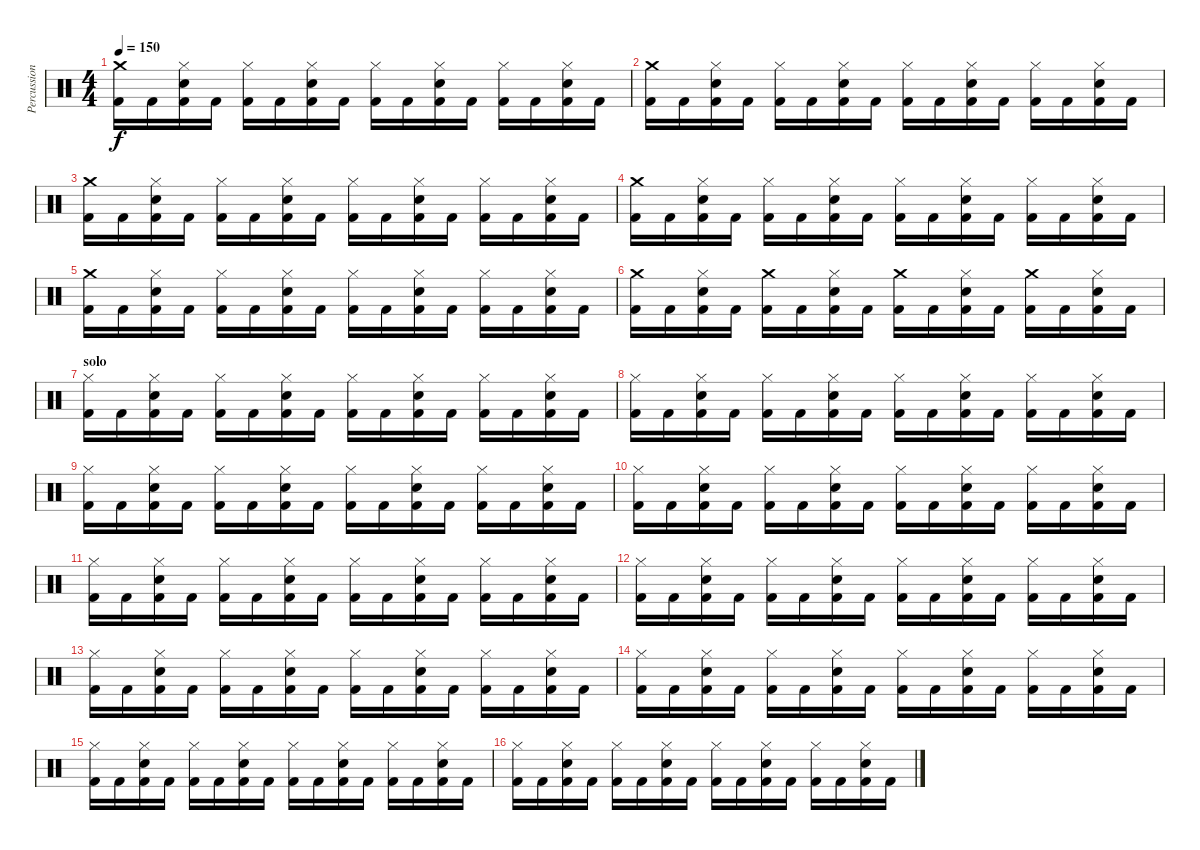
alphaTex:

\track ("Percussioni" "Percussion") {instrument percussion}
\staff {score}
\articulation defaults
\ts (4 4)
\tempo 150
\clef neutral
\ks c
("Crash medium (hit)" "Kick (hit) 2").16{dy f} "Kick (hit) 2".16 ("Hi-Hat (closed)" "Electric Snare (hit)" "Kick (hit) 2").16 "Kick (hit) 2".16 ("Hi-Hat (closed)" "Kick (hit) 2").16 "Kick (hit) 2".16 ("Hi-Hat (closed)" "Electric Snare (hit)" "Kick (hit) 2").16 "Kick (hit) 2".16 ("Hi-Hat (closed)" "Kick (hit) 2").16 "Kick (hit) 2".16 ("Hi-Hat (closed)" "Electric Snare (hit)" "Kick (hit) 2").16 "Kick (hit) 2".16 ("Hi-Hat (closed)" "Kick (hit) 2").16 "Kick (hit) 2".16 ("Hi-Hat (closed)" "Electric Snare (hit)" "Kick (hit) 2").16 "Kick (hit) 2".16 |
("Crash medium (hit)" "Kick (hit) 2").16 "Kick (hit) 2".16 ("Hi-Hat (closed)" "Electric Snare (hit)" "Kick (hit) 2").16 "Kick (hit) 2".16 ("Hi-Hat (closed)" "Kick (hit) 2").16 "Kick (hit) 2".16 ("Hi-Hat (closed)" "Electric Snare (hit)" "Kick (hit) 2").16 "Kick (hit) 2".16 ("Hi-Hat (closed)" "Kick (hit) 2").16 "Kick (hit) 2".16 ("Hi-Hat (closed)" "Electric Snare (hit)" "Kick (hit) 2").16 "Kick (hit) 2".16 ("Hi-Hat (closed)" "Kick (hit) 2").16 "Kick (hit) 2".16 ("Hi-Hat (closed)" "Electric Snare (hit)" "Kick (hit) 2").16 "Kick (hit) 2".16 |
("Crash medium (hit)" "Kick (hit) 2").16 "Kick (hit) 2".16 ("Hi-Hat (closed)" "Electric Snare (hit)" "Kick (hit) 2").16 "Kick (hit) 2".16 ("Hi-Hat (closed)" "Kick (hit) 2").16 "Kick (hit) 2".16 ("Hi-Hat (closed)" "Electric Snare (hit)" "Kick (hit) 2").16 "Kick (hit) 2".16 ("Hi-Hat (closed)" "Kick (hit) 2").16 "Kick (hit) 2".16 ("Hi-Hat (closed)" "Electric Snare (hit)" "Kick (hit) 2").16 "Kick (hit) 2".16 ("Hi-Hat (closed)" "Kick (hit) 2").16 "Kick (hit) 2".16 ("Hi-Hat (closed)" "Electric Snare (hit)" "Kick (hit) 2").16 "Kick (hit) 2".16 |
("Crash medium (hit)" "Kick (hit) 2").16 "Kick (hit) 2".16 ("Hi-Hat (closed)" "Electric Snare (hit)" "Kick (hit) 2").16 "Kick (hit) 2".16 ("Hi-Hat (closed)" "Kick (hit) 2").16 "Kick (hit) 2".16 ("Hi-Hat (closed)" "Electric Snare (hit)" "Kick (hit) 2").16 "Kick (hit) 2".16 ("Hi-Hat (closed)" "Kick (hit) 2").16 "Kick (hit) 2".16 ("Hi-Hat (closed)" "Electric Snare (hit)" "Kick (hit) 2").16 "Kick (hit) 2".16 ("Hi-Hat (closed)" "Kick (hit) 2").16 "Kick (hit) 2".16 ("Hi-Hat (closed)" "Electric Snare (hit)" "Kick (hit) 2").16 "Kick (hit) 2".16 |
("Crash medium (hit)" "Kick (hit) 2").16 "Kick (hit) 2".16 ("Hi-Hat (closed)" "Electric Snare (hit)" "Kick (hit) 2").16 "Kick (hit) 2".16 ("Hi-Hat (closed)" "Kick (hit) 2").16 "Kick (hit) 2".16 ("Hi-Hat (closed)" "Electric Snare (hit)" "Kick (hit) 2").16 "Kick (hit) 2".16 ("Hi-Hat (closed)" "Kick (hit) 2").16 "Kick (hit) 2".16 ("Hi-Hat (closed)" "Electric Snare (hit)" "Kick (hit) 2").16 "Kick (hit) 2".16 ("Hi-Hat (closed)" "Kick (hit) 2").16 "Kick (hit) 2".16 ("Hi-Hat (closed)" "Electric Snare (hit)" "Kick (hit) 2").16 "Kick (hit) 2".16 |
("Crash medium (hit)" "Kick (hit) 2").16 "Kick (hit) 2".16 ("Hi-Hat (closed)" "Electric Snare (hit)" "Kick (hit) 2").16 "Kick (hit) 2".16 ("Crash medium (hit)" "Kick (hit) 2").16 "Kick (hit) 2".16 ("Hi-Hat (closed)" "Electric Snare (hit)" "Kick (hit) 2").16 "Kick (hit) 2".16 ("Crash medium (hit)" "Kick (hit) 2").16 "Kick (hit) 2".16 ("Hi-Hat (closed)" "Electric Snare (hit)" "Kick (hit) 2").16 "Kick (hit) 2".16 ("Crash medium (hit)" "Kick (hit) 2").16 "Kick (hit) 2".16 ("Hi-Hat (closed)" "Electric Snare (hit)" "Kick (hit) 2").16 "Kick (hit) 2".16 |
\section ("" "solo")
("Hi-Hat (closed)" "Kick (hit) 2").16 "Kick (hit) 2".16 ("Hi-Hat (closed)" "Electric Snare (hit)" "Kick (hit) 2").16 "Kick (hit) 2".16 ("Hi-Hat (closed)" "Kick (hit) 2").16 "Kick (hit) 2".16 ("Hi-Hat (closed)" "Electric Snare (hit)" "Kick (hit) 2").16 "Kick (hit) 2".16 ("Hi-Hat (closed)" "Kick (hit) 2").16 "Kick (hit) 2".16 ("Hi-Hat (closed)" "Electric Snare (hit)" "Kick (hit) 2").16 "Kick (hit) 2".16 ("Hi-Hat (closed)" "Kick (hit) 2").16 "Kick (hit) 2".16 ("Hi-Hat (closed)" "Electric Snare (hit)" "Kick (hit) 2").16 "Kick (hit) 2".16 |
("Hi-Hat (closed)" "Kick (hit) 2").16 "Kick (hit) 2".16 ("Hi-Hat (closed)" "Electric Snare (hit)" "Kick (hit) 2").16 "Kick (hit) 2".16 ("Hi-Hat (closed)" "Kick (hit) 2").16 "Kick (hit) 2".16 ("Hi-Hat (closed)" "Electric Snare (hit)" "Kick (hit) 2").16 "Kick (hit) 2".16 ("Hi-Hat (closed)" "Kick (hit) 2").16 "Kick (hit) 2".16 ("Hi-Hat (closed)" "Electric Snare (hit)" "Kick (hit) 2").16 "Kick (hit) 2".16 ("Hi-Hat (closed)" "Kick (hit) 2").16 "Kick (hit) 2".16 ("Hi-Hat (closed)" "Electric Snare (hit)" "Kick (hit) 2").16 "Kick (hit) 2".16 |
("Hi-Hat (closed)" "Kick (hit) 2").16 "Kick (hit) 2".16 ("Hi-Hat (closed)" "Electric Snare (hit)" "Kick (hit) 2").16 "Kick (hit) 2".16 ("Hi-Hat (closed)" "Kick (hit) 2").16 "Kick (hit) 2".16 ("Hi-Hat (closed)" "Electric Snare (hit)" "Kick (hit) 2").16 "Kick (hit) 2".16 ("Hi-Hat (closed)" "Kick (hit) 2").16 "Kick (hit) 2".16 ("Hi-Hat (closed)" "Electric Snare (hit)" "Kick (hit) 2").16 "Kick (hit) 2".16 ("Hi-Hat (closed)" "Kick (hit) 2").16 "Kick (hit) 2".16 ("Hi-Hat (closed)" "Electric Snare (hit)" "Kick (hit) 2").16 "Kick (hit) 2".16 |
("Hi-Hat (closed)" "Kick (hit) 2").16 "Kick (hit) 2".16 ("Hi-Hat (closed)" "Electric Snare (hit)" "Kick (hit) 2").16 "Kick (hit) 2".16 ("Hi-Hat (closed)" "Kick (hit) 2").16 "Kick (hit) 2".16 ("Hi-Hat (closed)" "Electric Snare (hit)" "Kick (hit) 2").16 "Kick (hit) 2".16 ("Hi-Hat (closed)" "Kick (hit) 2").16 "Kick (hit) 2".16 ("Hi-Hat (closed)" "Electric Snare (hit)" "Kick (hit) 2").16 "Kick (hit) 2".16 ("Hi-Hat (closed)" "Kick (hit) 2").16 "Kick (hit) 2".16 ("Hi-Hat (closed)" "Electric Snare (hit)" "Kick (hit) 2").16 "Kick (hit) 2".16 |
("Hi-Hat (closed)" "Kick (hit) 2").16 "Kick (hit) 2".16 ("Hi-Hat (closed)" "Electric Snare (hit)" "Kick (hit) 2").16 "Kick (hit) 2".16 ("Hi-Hat (closed)" "Kick (hit) 2").16 "Kick (hit) 2".16 ("Hi-Hat (closed)" "Electric Snare (hit)" "Kick (hit) 2").16 "Kick (hit) 2".16 ("Hi-Hat (closed)" "Kick (hit) 2").16 "Kick (hit) 2".16 ("Hi-Hat (closed)" "Electric Snare (hit)" "Kick (hit) 2").16 "Kick (hit) 2".16 ("Hi-Hat (closed)" "Kick (hit) 2").16 "Kick (hit) 2".16 ("Hi-Hat (closed)" "Electric Snare (hit)" "Kick (hit) 2").16 "Kick (hit) 2".16 |
("Hi-Hat (closed)" "Kick (hit) 2").16 "Kick (hit) 2".16 ("Hi-Hat (closed)" "Electric Snare (hit)" "Kick (hit) 2").16 "Kick (hit) 2".16 ("Hi-Hat (closed)" "Kick (hit) 2").16 "Kick (hit) 2".16 ("Hi-Hat (closed)" "Electric Snare (hit)" "Kick (hit) 2").16 "Kick (hit) 2".16 ("Hi-Hat (closed)" "Kick (hit) 2").16 "Kick (hit) 2".16 ("Hi-Hat (closed)" "Electric Snare (hit)" "Kick (hit) 2").16 "Kick (hit) 2".16 ("Hi-Hat (closed)" "Kick (hit) 2").16 "Kick (hit) 2".16 ("Hi-Hat (closed)" "Electric Snare (hit)" "Kick (hit) 2").16 "Kick (hit) 2".16 |
("Hi-Hat (closed)" "Kick (hit) 2").16 "Kick (hit) 2".16 ("Hi-Hat (closed)" "Electric Snare (hit)" "Kick (hit) 2").16 "Kick (hit) 2".16 ("Hi-Hat (closed)" "Kick (hit) 2").16 "Kick (hit) 2".16 ("Hi-Hat (closed)" "Electric Snare (hit)" "Kick (hit) 2").16 "Kick (hit) 2".16 ("Hi-Hat (closed)" "Kick (hit) 2").16 "Kick (hit) 2".16 ("Hi-Hat (closed)" "Electric Snare (hit)" "Kick (hit) 2").16 "Kick (hit) 2".16 ("Hi-Hat (closed)" "Kick (hit) 2").16 "Kick (hit) 2".16 ("Hi-Hat (closed)" "Electric Snare (hit)" "Kick (hit) 2").16 "Kick (hit) 2".16 |
("Hi-Hat (closed)" "Kick (hit) 2").16 "Kick (hit) 2".16 ("Hi-Hat (closed)" "Electric Snare (hit)" "Kick (hit) 2").16 "Kick (hit) 2".16 ("Hi-Hat (closed)" "Kick (hit) 2").16 "Kick (hit) 2".16 ("Hi-Hat (closed)" "Electric Snare (hit)" "Kick (hit) 2").16 "Kick (hit) 2".16 ("Hi-Hat (closed)" "Kick (hit) 2").16 "Kick (hit) 2".16 ("Hi-Hat (closed)" "Electric Snare (hit)" "Kick (hit) 2").16 "Kick (hit) 2".16 ("Hi-Hat (closed)" "Kick (hit) 2").16 "Kick (hit) 2".16 ("Hi-Hat (closed)" "Electric Snare (hit)" "Kick (hit) 2").16 "Kick (hit) 2".16 |
("Hi-Hat (closed)" "Kick (hit) 2").16 "Kick (hit) 2".16 ("Hi-Hat (closed)" "Electric Snare (hit)" "Kick (hit) 2").16 "Kick (hit) 2".16 ("Hi-Hat (closed)" "Kick (hit) 2").16 "Kick (hit) 2".16 ("Hi-Hat (closed)" "Electric Snare (hit)" "Kick (hit) 2").16 "Kick (hit) 2".16 ("Hi-Hat (closed)" "Kick (hit) 2").16 "Kick (hit) 2".16 ("Hi-Hat (closed)" "Electric Snare (hit)" "Kick (hit) 2").16 "Kick (hit) 2".16 ("Hi-Hat (closed)" "Kick (hit) 2").16 "Kick (hit) 2".16 ("Hi-Hat (closed)" "Electric Snare (hit)" "Kick (hit) 2").16 "Kick (hit) 2".16 |
("Hi-Hat (closed)" "Kick (hit) 2").16 "Kick (hit) 2".16 ("Hi-Hat (closed)" "Electric Snare (hit)" "Kick (hit) 2").16 "Kick (hit) 2".16 ("Hi-Hat (closed)" "Kick (hit) 2").16 "Kick (hit) 2".16 ("Hi-Hat (closed)" "Electric Snare (hit)" "Kick (hit) 2").16 "Kick (hit) 2".16 ("Hi-Hat (closed)" "Kick (hit) 2").16 "Kick (hit) 2".16 ("Hi-Hat (closed)" "Electric Snare (hit)" "Kick (hit) 2").16 "Kick (hit) 2".16 ("Hi-Hat (closed)" "Kick (hit) 2").16 "Kick (hit) 2".16 ("Hi-Hat (closed)" "Electric Snare (hit)" "Kick (hit) 2").16 "Kick (hit) 2".16
